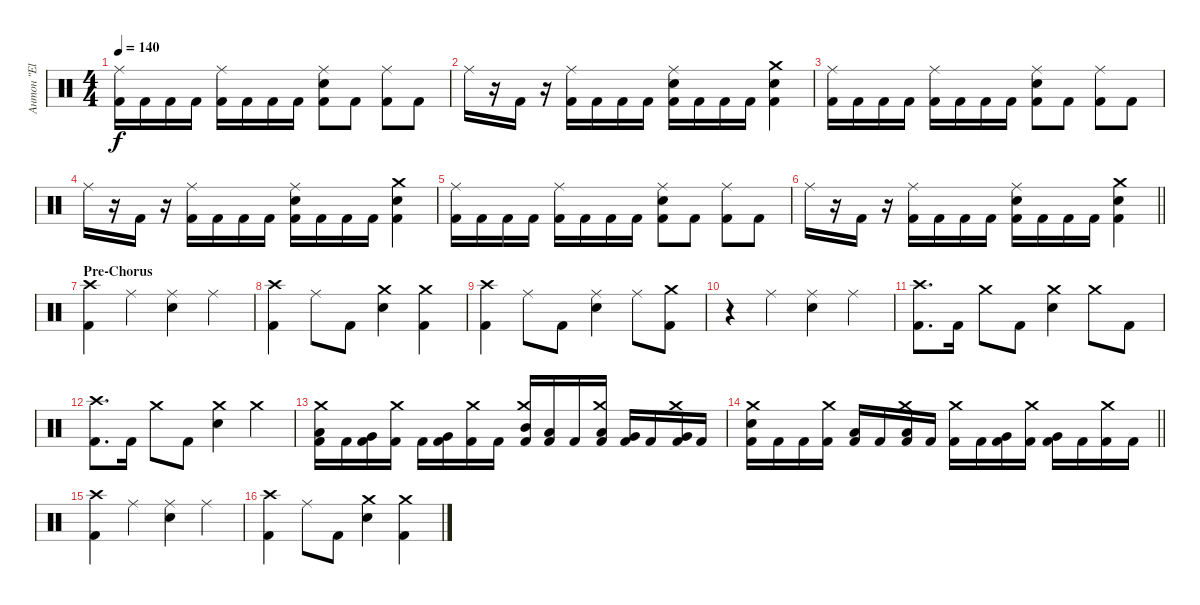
\track ("Антон \"El Bastardo\" Смольянин" "Антон \"El ") {instrument percussion}
\staff {score}
\articulation defaults
\ts (4 4)
\tempo 140
\clef neutral
\ks c
("Ride (middle)" "Kick (hit) 2").16{dy f} "Kick (hit) 2".16 "Kick (hit) 2".16 "Kick (hit) 2".16 ("Ride (middle)" "Kick (hit) 2").16 "Kick (hit) 2".16 "Kick (hit) 2".16 "Kick (hit) 2".16 ("Ride (middle)" "Electric Snare (hit)" "Kick (hit) 2").8 "Kick (hit) 2".8 ("Ride (middle)" "Kick (hit) 2").8 "Kick (hit) 2".8 |
"Ride (middle)".16 r.16 "Kick (hit) 2".16 r.16 ("Ride (middle)" "Kick (hit) 2").16 "Kick (hit) 2".16 "Kick (hit) 2".16 "Kick (hit) 2".16 ("Ride (middle)" "Electric Snare (hit)" "Kick (hit) 2").16 "Kick (hit) 2".16 "Kick (hit) 2".16 "Kick (hit) 2".16 ("Crash medium (hit)" "Electric Snare (hit)" "Kick (hit) 2").4 |
("Ride (middle)" "Kick (hit) 2").16 "Kick (hit) 2".16 "Kick (hit) 2".16 "Kick (hit) 2".16 ("Ride (middle)" "Kick (hit) 2").16 "Kick (hit) 2".16 "Kick (hit) 2".16 "Kick (hit) 2".16 ("Ride (middle)" "Electric Snare (hit)" "Kick (hit) 2").8 "Kick (hit) 2".8 ("Ride (middle)" "Kick (hit) 2").8 "Kick (hit) 2".8 |
"Ride (middle)".16 r.16 "Kick (hit) 2".16 r.16 ("Ride (middle)" "Kick (hit) 2").16 "Kick (hit) 2".16 "Kick (hit) 2".16 "Kick (hit) 2".16 ("Ride (middle)" "Electric Snare (hit)" "Kick (hit) 2").16 "Kick (hit) 2".16 "Kick (hit) 2".16 "Kick (hit) 2".16 ("Crash medium (hit)" "Electric Snare (hit)" "Kick (hit) 2").4 |
("Ride (middle)" "Kick (hit) 2").16 "Kick (hit) 2".16 "Kick (hit) 2".16 "Kick (hit) 2".16 ("Ride (middle)" "Kick (hit) 2").16 "Kick (hit) 2".16 "Kick (hit) 2".16 "Kick (hit) 2".16 ("Ride (middle)" "Electric Snare (hit)" "Kick (hit) 2").8 "Kick (hit) 2".8 ("Ride (middle)" "Kick (hit) 2").8 "Kick (hit) 2".8 |
\barLineRight lightlight "Ride (middle)".16
r.16 "Kick (hit) 2".16 r.16 ("Ride (middle)" "Kick (hit) 2").16 "Kick (hit) 2".16 "Kick (hit) 2".16 "Kick (hit) 2".16 ("Ride (middle)" "Electric Snare (hit)" "Kick (hit) 2").16 "Kick (hit) 2".16 "Kick (hit) 2".16 "Kick (hit) 2".16 ("Crash medium (hit)" "Electric Snare (hit)" "Kick (hit) 2").4 |
\section ("" "Pre-Chorus")
("Crash high (hit)" "Kick (hit) 2").4 "Ride (middle)".4 ("Ride (middle)" "Electric Snare (hit)").4 "Ride (middle)".4 |
("Crash high (hit)" "Kick (hit) 2").4 "Ride (middle)".8 "Kick (hit) 2".8 ("Crash medium (hit)" "Electric Snare (hit)").4 ("Crash medium (hit)" "Kick (hit) 2").4 |
("Crash high (hit)" "Kick (hit) 2").4 "Ride (middle)".8 "Kick (hit) 2".8 ("Ride (middle)" "Electric Snare (hit)").4 "Ride (middle)".8 ("Crash medium (hit)" "Kick (hit) 2").8 |
r.4 "Ride (middle)".4 ("Ride (middle)" "Electric Snare (hit)").4 "Ride (middle)".4 |
("Crash high (hit)" "Kick (hit) 2").8{d} "Kick (hit) 2".16 "Crash medium (hit)".8 "Kick (hit) 2".8 ("Crash medium (hit)" "Electric Snare (hit)").4 "Crash medium (hit)".8 "Kick (hit) 2".8 |
("Crash high (hit)" "Kick (hit) 2").8{d} "Kick (hit) 2".16 "Crash medium (hit)".8 "Kick (hit) 2".8 ("Crash medium (hit)" "Electric Snare (hit)").4 "Crash medium (hit)".4 |
("Crash medium (hit)" "Low Tom (hit)" "Kick (hit) 2").16 "Kick (hit) 2".16 ("Very Low Tom (hit)" "Kick (hit) 2").16 ("Crash medium (hit)" "Kick (hit) 2").16 "Kick (hit) 2".16 ("Very Low Tom (hit)" "Kick (hit) 2").16 ("Crash medium (hit)" "Kick (hit) 2").16 "Kick (hit) 2".16 ("Crash medium (hit)" "Mid Tom (hit)" "Kick (hit) 2").16 ("Low Tom (hit)" "Kick (hit) 2").16 "Kick (hit) 2".16 ("Crash medium (hit)" "Low Tom (hit)" "Kick (hit) 2").16 ("Very Low Tom (hit)" "Kick (hit) 2").16 "Kick (hit) 2".16 ("Crash medium (hit)" "Very Low Tom (hit)" "Kick (hit) 2").16 "Kick (hit) 2".16 |
\barLineRight lightlight
("Crash medium (hit)" "Electric Snare (hit)" "Kick (hit) 2").16 "Kick (hit) 2".16 "Kick (hit) 2".16 ("Crash medium (hit)" "Kick (hit) 2").16 ("Low Tom (hit)" "Kick (hit) 2").16 "Kick (hit) 2".16 ("Crash medium (hit)" "Low Tom (hit)" "Kick (hit) 2").16 "Kick (hit) 2".16 ("Crash medium (hit)" "Kick (hit) 2").16 "Kick (hit) 2".16 ("Very Low Tom (hit)" "Kick (hit) 2").16 ("Crash medium (hit)" "Kick (hit) 2").16 ("Very Low Tom (hit)" "Kick (hit) 2").16 "Kick (hit) 2".16 ("Crash medium (hit)" "Kick (hit) 2").16 "Kick (hit) 2".16 |
("Crash high (hit)" "Kick (hit) 2").4 "Ride (middle)".4 ("Ride (middle)" "Electric Snare (hit)").4 "Ride (middle)".4 |
("Crash high (hit)" "Kick (hit) 2").4 "Ride (middle)".8 "Kick (hit) 2".8 ("Crash medium (hit)" "Electric Snare (hit)").4 ("Crash medium (hit)" "Kick (hit) 2").4
